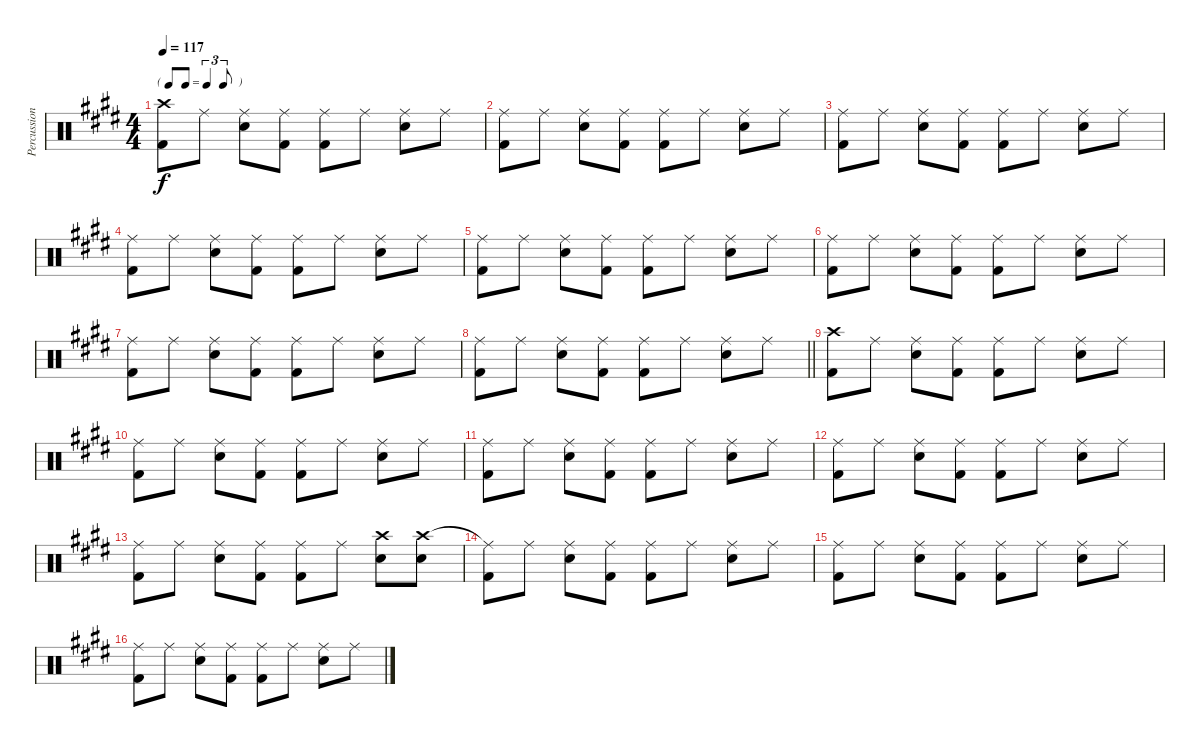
\track ("Percussion" "Percussion") {instrument percussion}
\staff {score}
\articulation defaults
\ts (4 4)
\tf triplet8th
\tempo 117
\clef neutral
\ks e
("Crash high (hit)" "Kick (hit) 2").8{dy f} "Ride (middle)".8 ("Ride (middle)" "Snare (hit) 2").8 ("Ride (middle)" "Kick (hit) 2").8 ("Ride (middle)" "Kick (hit) 2").8 "Ride (middle)".8 ("Ride (middle)" "Snare (hit) 2").8 "Ride (middle)".8 |
("Ride (middle)" "Kick (hit) 2").8 "Ride (middle)".8 ("Ride (middle)" "Snare (hit) 2").8 ("Ride (middle)" "Kick (hit) 2").8 ("Ride (middle)" "Kick (hit) 2").8 "Ride (middle)".8 ("Ride (middle)" "Snare (hit) 2").8 "Ride (middle)".8 |
("Ride (middle)" "Kick (hit) 2").8 "Ride (middle)".8 ("Ride (middle)" "Snare (hit) 2").8 ("Ride (middle)" "Kick (hit) 2").8 ("Ride (middle)" "Kick (hit) 2").8 "Ride (middle)".8 ("Ride (middle)" "Snare (hit) 2").8 "Ride (middle)".8 |
("Ride (middle)" "Kick (hit) 2").8 "Ride (middle)".8 ("Ride (middle)" "Snare (hit) 2").8 ("Ride (middle)" "Kick (hit) 2").8 ("Ride (middle)" "Kick (hit) 2").8 "Ride (middle)".8 ("Ride (middle)" "Snare (hit) 2").8 "Ride (middle)".8 |
("Ride (middle)" "Kick (hit) 2").8 "Ride (middle)".8 ("Ride (middle)" "Snare (hit) 2").8 ("Ride (middle)" "Kick (hit) 2").8 ("Ride (middle)" "Kick (hit) 2").8 "Ride (middle)".8 ("Ride (middle)" "Snare (hit) 2").8 "Ride (middle)".8 |
("Ride (middle)" "Kick (hit) 2").8 "Ride (middle)".8 ("Ride (middle)" "Snare (hit) 2").8 ("Ride (middle)" "Kick (hit) 2").8 ("Ride (middle)" "Kick (hit) 2").8 "Ride (middle)".8 ("Ride (middle)" "Snare (hit) 2").8 "Ride (middle)".8 |
("Ride (middle)" "Kick (hit) 2").8 "Ride (middle)".8 ("Ride (middle)" "Snare (hit) 2").8 ("Ride (middle)" "Kick (hit) 2").8 ("Ride (middle)" "Kick (hit) 2").8 "Ride (middle)".8 ("Ride (middle)" "Snare (hit) 2").8 "Ride (middle)".8 |
\barLineRight lightlight
("Ride (middle)" "Kick (hit) 2").8 "Ride (middle)".8 ("Ride (middle)" "Snare (hit) 2").8 ("Ride (middle)" "Kick (hit) 2").8 ("Ride (middle)" "Kick (hit) 2").8 "Ride (middle)".8 ("Ride (middle)" "Snare (hit) 2").8 "Ride (middle)".8 |
("Crash high (hit)" "Kick (hit) 2").8 "Ride (middle)".8 ("Ride (middle)" "Snare (hit) 2").8 ("Ride (middle)" "Kick (hit) 2").8 ("Ride (middle)" "Kick (hit) 2").8 "Ride (middle)".8 ("Ride (middle)" "Snare (hit) 2").8 "Ride (middle)".8 |
("Ride (middle)" "Kick (hit) 2").8 "Ride (middle)".8 ("Ride (middle)" "Snare (hit) 2").8 ("Ride (middle)" "Kick (hit) 2").8 ("Ride (middle)" "Kick (hit) 2").8 "Ride (middle)".8 ("Ride (middle)" "Snare (hit) 2").8 "Ride (middle)".8 |
("Ride (middle)" "Kick (hit) 2").8 "Ride (middle)".8 ("Ride (middle)" "Snare (hit) 2").8 ("Ride (middle)" "Kick (hit) 2").8 ("Ride (middle)" "Kick (hit) 2").8 "Ride (middle)".8 ("Ride (middle)" "Snare (hit) 2").8 "Ride (middle)".8 |
("Ride (middle)" "Kick (hit) 2").8 "Ride (middle)".8 ("Ride (middle)" "Snare (hit) 2").8 ("Ride (middle)" "Kick (hit) 2").8 ("Ride (middle)" "Kick (hit) 2").8 "Ride (middle)".8 ("Ride (middle)" "Snare (hit) 2").8 "Ride (middle)".8 |
("Ride (middle)" "Kick (hit) 2").8 "Ride (middle)".8 ("Ride (middle)" "Snare (hit) 2").8 ("Ride (middle)" "Kick (hit) 2").8 ("Ride (middle)" "Kick (hit) 2").8 "Ride (middle)".8 ("Crash high (hit)" "Snare (hit) 2").8 ("Crash high (hit)" "Snare (hit) 2").8 |
("Ride (middle)"{t} "Kick (hit) 2").8 "Ride (middle)".8 ("Ride (middle)" "Snare (hit) 2").8 ("Ride (middle)" "Kick (hit) 2").8 ("Ride (middle)" "Kick (hit) 2").8 "Ride (middle)".8 ("Ride (middle)" "Snare (hit) 2").8 "Ride (middle)".8 |
("Ride (middle)" "Kick (hit) 2").8 "Ride (middle)".8 ("Ride (middle)" "Snare (hit) 2").8 ("Ride (middle)" "Kick (hit) 2").8 ("Ride (middle)" "Kick (hit) 2").8 "Ride (middle)".8 ("Ride (middle)" "Snare (hit) 2").8 "Ride (middle)".8 |
("Ride (middle)" "Kick (hit) 2").8 "Ride (middle)".8 ("Ride (middle)" "Snare (hit) 2").8 ("Ride (middle)" "Kick (hit) 2").8 ("Ride (middle)" "Kick (hit) 2").8 "Ride (middle)".8 ("Ride (middle)" "Snare (hit) 2").8 "Ride (middle)".8
